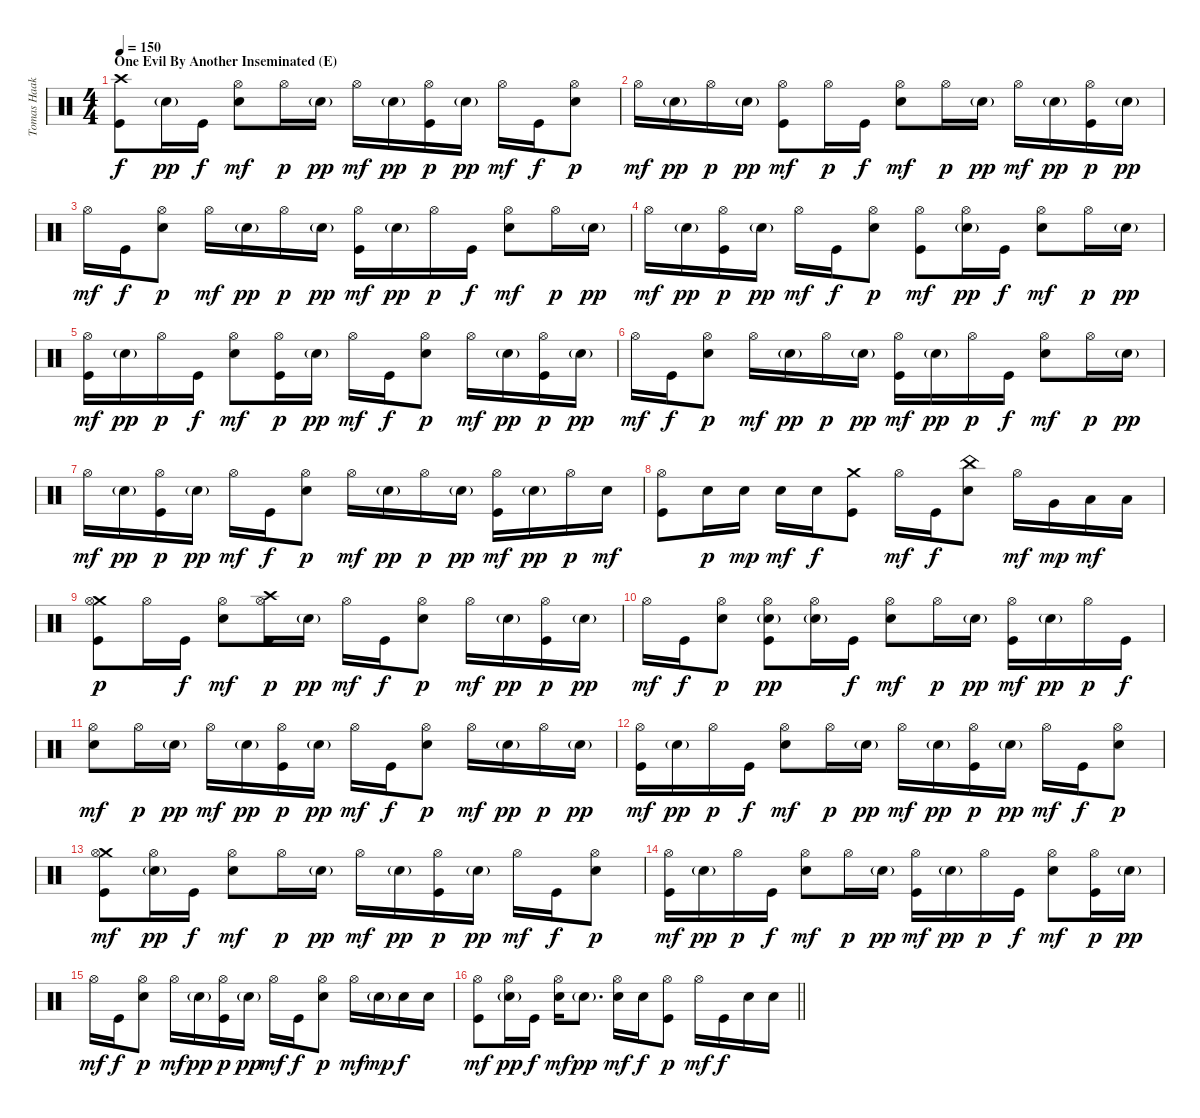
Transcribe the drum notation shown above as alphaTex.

\track ("Tomas Haake (Drums)" "Tomas Haak") {instrument percussion}
\staff {score}
\articulation defaults
\ts (4 4)
\section ("" "One Evil By Another Inseminated (E)")
\tempo 150
\clef neutral
\ks c
("Crash high (hit)" "Kick (hit)").8{dy f} "Electric Snare (hit)"{g}.16{dy pp} "Kick (hit)".16{dy f} ("Hi-Hat (open)" "Electric Snare (hit)").8{dy mf} "Hi-Hat (open)".16{dy p} "Electric Snare (hit)"{g}.16{dy pp} "Hi-Hat (open)".16{dy mf} "Electric Snare (hit)"{g}.16{dy pp} ("Hi-Hat (open)" "Kick (hit)").16{dy p} "Electric Snare (hit)"{g}.16{dy pp} "Hi-Hat (open)".16{dy mf} "Kick (hit)".16{dy f} ("Hi-Hat (open)" "Electric Snare (hit)").8{dy p} |
"Hi-Hat (open)".16{dy mf} "Electric Snare (hit)"{g}.16{dy pp} "Hi-Hat (open)".16{dy p} "Electric Snare (hit)"{g}.16{dy pp} ("Hi-Hat (open)" "Kick (hit)").8{dy mf} "Hi-Hat (open)".16{dy p} "Kick (hit)".16{dy f} ("Hi-Hat (open)" "Electric Snare (hit)").8{dy mf} "Hi-Hat (open)".16{dy p} "Electric Snare (hit)"{g}.16{dy pp} "Hi-Hat (open)".16{dy mf} "Electric Snare (hit)"{g}.16{dy pp} ("Hi-Hat (open)" "Kick (hit)").16{dy p} "Electric Snare (hit)"{g}.16{dy pp} |
"Hi-Hat (open)".16{dy mf} "Kick (hit)".16{dy f} ("Hi-Hat (open)" "Electric Snare (hit)").8{dy p} "Hi-Hat (open)".16{dy mf} "Electric Snare (hit)"{g}.16{dy pp} "Hi-Hat (open)".16{dy p} "Electric Snare (hit)"{g}.16{dy pp} ("Hi-Hat (open)" "Kick (hit)").16{dy mf} "Electric Snare (hit)"{g}.16{dy pp} "Hi-Hat (open)".16{dy p} "Kick (hit)".16{dy f} ("Hi-Hat (open)" "Electric Snare (hit)").8{dy mf} "Hi-Hat (open)".16{dy p} "Electric Snare (hit)"{g}.16{dy pp} |
"Hi-Hat (open)".16{dy mf} "Electric Snare (hit)"{g}.16{dy pp} ("Hi-Hat (open)" "Kick (hit)").16{dy p} "Electric Snare (hit)"{g}.16{dy pp} "Hi-Hat (open)".16{dy mf} "Kick (hit)".16{dy f} ("Hi-Hat (open)" "Electric Snare (hit)").8{dy p} ("Hi-Hat (open)" "Kick (hit)").8{dy mf} ("Hi-Hat (open)" "Electric Snare (hit)"{g}).16{dy pp} "Kick (hit)".16{dy f} ("Hi-Hat (open)" "Electric Snare (hit)").8{dy mf} "Hi-Hat (open)".16{dy p} "Electric Snare (hit)"{g}.16{dy pp} |
("Hi-Hat (open)" "Kick (hit)").16{dy mf} "Electric Snare (hit)"{g}.16{dy pp} "Hi-Hat (open)".16{dy p} "Kick (hit)".16{dy f} ("Hi-Hat (open)" "Electric Snare (hit)").8{dy mf} ("Hi-Hat (open)" "Kick (hit)").16{dy p} "Electric Snare (hit)"{g}.16{dy pp} "Hi-Hat (open)".16{dy mf} "Kick (hit)".16{dy f} ("Hi-Hat (open)" "Electric Snare (hit)").8{dy p} "Hi-Hat (open)".16{dy mf} "Electric Snare (hit)"{g}.16{dy pp} ("Hi-Hat (open)" "Kick (hit)").16{dy p} "Electric Snare (hit)"{g}.16{dy pp} |
"Hi-Hat (open)".16{dy mf} "Kick (hit)".16{dy f} ("Hi-Hat (open)" "Electric Snare (hit)").8{dy p} "Hi-Hat (open)".16{dy mf} "Electric Snare (hit)"{g}.16{dy pp} "Hi-Hat (open)".16{dy p} "Electric Snare (hit)"{g}.16{dy pp} ("Hi-Hat (open)" "Kick (hit)").16{dy mf} "Electric Snare (hit)"{g}.16{dy pp} "Hi-Hat (open)".16{dy p} "Kick (hit)".16{dy f} ("Hi-Hat (open)" "Electric Snare (hit)").8{dy mf} "Hi-Hat (open)".16{dy p} "Electric Snare (hit)"{g}.16{dy pp} |
"Hi-Hat (open)".16{dy mf} "Electric Snare (hit)"{g}.16{dy pp} ("Hi-Hat (open)" "Kick (hit)").16{dy p} "Electric Snare (hit)"{g}.16{dy pp} "Hi-Hat (open)".16{dy mf} "Kick (hit)".16{dy f} ("Hi-Hat (open)" "Electric Snare (hit)").8{dy p} "Hi-Hat (open)".16{dy mf} "Electric Snare (hit)"{g}.16{dy pp} "Hi-Hat (open)".16{dy p} "Electric Snare (hit)"{g}.16{dy pp} ("Hi-Hat (open)" "Kick (hit)").16{dy mf} "Electric Snare (hit)"{g}.16{dy pp} "Hi-Hat (open)".16{dy p} "Electric Snare (hit)".16{dy mf} |
("Hi-Hat (open)" "Kick (hit)").8 "Electric Snare (hit)".16{dy p} "Electric Snare (hit)".16{dy mp} "Electric Snare (hit)".16{dy mf} "Electric Snare (hit)".16{dy f} ("Crash medium (hit)" "Kick (hit)").8 "Hi-Hat (open)".16{dy mf} "Kick (hit)".16{dy f} ("China (hit)" "Electric Snare (hit)").8 "Hi-Hat (open)".16{dy mf} "Very Low Tom (hit)".16{dy mp} "Low Floor Tom (hit)".16{dy mf} "Low Floor Tom (hit)".16 |
("Crash medium (hit)" "Hi-Hat (open)" "Kick (hit)").8{dy p} "Hi-Hat (open)".16 "Kick (hit)".16{dy f} ("Hi-Hat (open)" "Electric Snare (hit)").8{dy mf} ("Crash high (hit)" "Hi-Hat (open)" "Kick (hit)").16{dy p} "Electric Snare (hit)"{g}.16{dy pp} "Hi-Hat (open)".16{dy mf} "Kick (hit)".16{dy f} ("Hi-Hat (open)" "Electric Snare (hit)").8{dy p} "Hi-Hat (open)".16{dy mf} "Electric Snare (hit)"{g}.16{dy pp} ("Hi-Hat (open)" "Kick (hit)").16{dy p} "Electric Snare (hit)"{g}.16{dy pp} |
"Hi-Hat (open)".16{dy mf} "Kick (hit)".16{dy f} ("Hi-Hat (open)" "Electric Snare (hit)").8{dy p} ("Hi-Hat (open)" "Electric Snare (hit)"{g} "Kick (hit)").8{dy pp} ("Hi-Hat (open)" "Electric Snare (hit)"{g}).16 "Kick (hit)".16{dy f} ("Hi-Hat (open)" "Electric Snare (hit)").8{dy mf} "Hi-Hat (open)".16{dy p} "Electric Snare (hit)"{g}.16{dy pp} ("Hi-Hat (open)" "Kick (hit)").16{dy mf} "Electric Snare (hit)"{g}.16{dy pp} "Hi-Hat (open)".16{dy p} "Kick (hit)".16{dy f} |
("Hi-Hat (open)" "Electric Snare (hit)").8{dy mf} "Hi-Hat (open)".16{dy p} "Electric Snare (hit)"{g}.16{dy pp} "Hi-Hat (open)".16{dy mf} "Electric Snare (hit)"{g}.16{dy pp} ("Hi-Hat (open)" "Kick (hit)").16{dy p} "Electric Snare (hit)"{g}.16{dy pp} "Hi-Hat (open)".16{dy mf} "Kick (hit)".16{dy f} ("Hi-Hat (open)" "Electric Snare (hit)").8{dy p} "Hi-Hat (open)".16{dy mf} "Electric Snare (hit)"{g}.16{dy pp} "Hi-Hat (open)".16{dy p} "Electric Snare (hit)"{g}.16{dy pp} |
("Hi-Hat (open)" "Kick (hit)").16{dy mf} "Electric Snare (hit)"{g}.16{dy pp} "Hi-Hat (open)".16{dy p} "Kick (hit)".16{dy f} ("Hi-Hat (open)" "Electric Snare (hit)").8{dy mf} "Hi-Hat (open)".16{dy p} "Electric Snare (hit)"{g}.16{dy pp} "Hi-Hat (open)".16{dy mf} "Electric Snare (hit)"{g}.16{dy pp} ("Hi-Hat (open)" "Kick (hit)").16{dy p} "Electric Snare (hit)"{g}.16{dy pp} "Hi-Hat (open)".16{dy mf} "Kick (hit)".16{dy f} ("Hi-Hat (open)" "Electric Snare (hit)").8{dy p} |
("Crash medium (hit)" "Hi-Hat (open)" "Kick (hit)").8{dy mf} ("Hi-Hat (open)" "Electric Snare (hit)"{g}).16{dy pp} "Kick (hit)".16{dy f} ("Hi-Hat (open)" "Electric Snare (hit)").8{dy mf} "Hi-Hat (open)".16{dy p} "Electric Snare (hit)"{g}.16{dy pp} "Hi-Hat (open)".16{dy mf} "Electric Snare (hit)"{g}.16{dy pp} ("Hi-Hat (open)" "Kick (hit)").16{dy p} "Electric Snare (hit)"{g}.16{dy pp} "Hi-Hat (open)".16{dy mf} "Kick (hit)".16{dy f} ("Hi-Hat (open)" "Electric Snare (hit)").8{dy p} |
("Hi-Hat (open)" "Kick (hit)").16{dy mf} "Electric Snare (hit)"{g}.16{dy pp} "Hi-Hat (open)".16{dy p} "Kick (hit)".16{dy f} ("Hi-Hat (open)" "Electric Snare (hit)").8{dy mf} "Hi-Hat (open)".16{dy p} "Electric Snare (hit)"{g}.16{dy pp} ("Hi-Hat (open)" "Kick (hit)").16{dy mf} "Electric Snare (hit)"{g}.16{dy pp} "Hi-Hat (open)".16{dy p} "Kick (hit)".16{dy f} ("Hi-Hat (open)" "Electric Snare (hit)").8{dy mf} ("Hi-Hat (open)" "Kick (hit)").16{dy p} "Electric Snare (hit)"{g}.16{dy pp} |
"Hi-Hat (open)".16{dy mf} "Kick (hit)".16{dy f} ("Hi-Hat (open)" "Electric Snare (hit)").8{dy p} "Hi-Hat (open)".16{dy mf} "Electric Snare (hit)"{g}.16{dy pp} ("Hi-Hat (open)" "Kick (hit)").16{dy p} "Electric Snare (hit)"{g}.16{dy pp} "Hi-Hat (open)".16{dy mf} "Kick (hit)".16{dy f} ("Hi-Hat (open)" "Electric Snare (hit)").8{dy p} "Hi-Hat (open)".16{dy mf} "Electric Snare (hit)"{g}.16{dy mp} "Electric Snare (hit)".16{dy f} "Electric Snare (hit)".16 |
\barLineRight lightlight
("Hi-Hat (open)" "Kick (hit)").8{dy mf} ("Hi-Hat (open)" "Electric Snare (hit)"{g}).16{dy pp} "Kick (hit)".16{dy f} ("Hi-Hat (open)" "Electric Snare (hit)").16{dy mf} "Electric Snare (hit)"{g}.8{d dy pp} ("Hi-Hat (open)" "Electric Snare (hit)").16{dy mf} "Electric Snare (hit)".16{dy f} ("Hi-Hat (open)" "Kick (hit)").8{dy p} "Hi-Hat (open)".16{dy mf} "Kick (hit)".16{dy f} "Electric Snare (hit)".16 "Electric Snare (hit)".16
